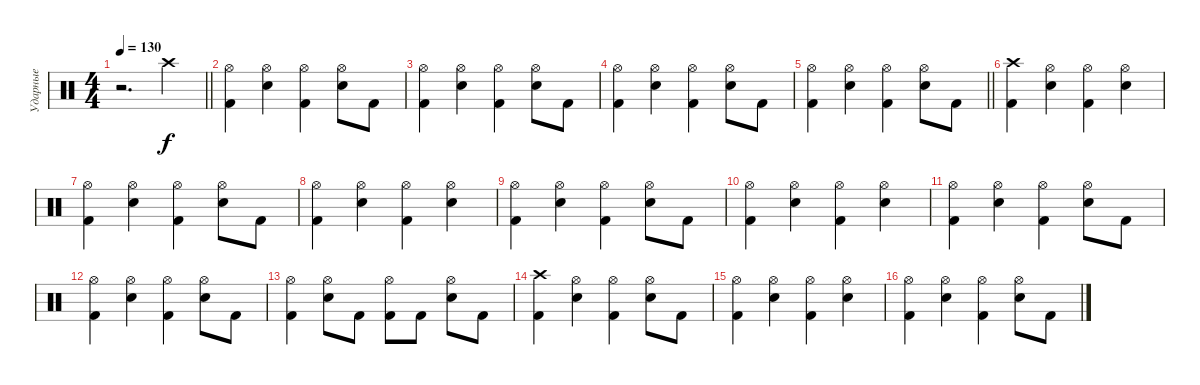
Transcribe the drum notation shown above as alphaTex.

\track ("Ударные" "Ударные") {instrument percussion}
\staff
\articulation defaults
\ts (4 4)
\tempo 130
\clef neutral
\barLineRight lightlight
\ks c
r.2{d dy f} "Crash high (hit)".4 |
("Kick (hit) 2" "Hi-Hat (open)").4 ("Snare (hit) 2" "Hi-Hat (open)").4 ("Kick (hit) 2" "Hi-Hat (open)").4 ("Snare (hit) 2" "Hi-Hat (open)").8 "Kick (hit) 2".8 |
("Kick (hit) 2" "Hi-Hat (open)").4 ("Snare (hit) 2" "Hi-Hat (open)").4 ("Kick (hit) 2" "Hi-Hat (open)").4 ("Snare (hit) 2" "Hi-Hat (open)").8 "Kick (hit) 2".8 |
("Kick (hit) 2" "Hi-Hat (open)").4 ("Snare (hit) 2" "Hi-Hat (open)").4 ("Kick (hit) 2" "Hi-Hat (open)").4 ("Snare (hit) 2" "Hi-Hat (open)").8 "Kick (hit) 2".8 |
\barLineRight lightlight
("Kick (hit) 2" "Hi-Hat (open)").4 ("Snare (hit) 2" "Hi-Hat (open)").4 ("Kick (hit) 2" "Hi-Hat (open)").4 ("Snare (hit) 2" "Hi-Hat (open)").8 "Kick (hit) 2".8 |
("Kick (hit) 2" "Crash high (hit)").4 ("Snare (hit) 2" "Hi-Hat (open)").4 ("Kick (hit) 2" "Hi-Hat (open)").4 ("Snare (hit) 2" "Hi-Hat (open)").4 |
("Kick (hit) 2" "Hi-Hat (open)").4 ("Snare (hit) 2" "Hi-Hat (open)").4 ("Kick (hit) 2" "Hi-Hat (open)").4 ("Snare (hit) 2" "Hi-Hat (open)").8 "Kick (hit) 2".8 |
("Kick (hit) 2" "Hi-Hat (open)").4 ("Snare (hit) 2" "Hi-Hat (open)").4 ("Kick (hit) 2" "Hi-Hat (open)").4 ("Snare (hit) 2" "Hi-Hat (open)").4 |
("Kick (hit) 2" "Hi-Hat (open)").4 ("Snare (hit) 2" "Hi-Hat (open)").4 ("Kick (hit) 2" "Hi-Hat (open)").4 ("Snare (hit) 2" "Hi-Hat (open)").8 "Kick (hit) 2".8 |
("Kick (hit) 2" "Hi-Hat (open)").4 ("Snare (hit) 2" "Hi-Hat (open)").4 ("Kick (hit) 2" "Hi-Hat (open)").4 ("Snare (hit) 2" "Hi-Hat (open)").4 |
("Kick (hit) 2" "Hi-Hat (open)").4 ("Snare (hit) 2" "Hi-Hat (open)").4 ("Kick (hit) 2" "Hi-Hat (open)").4 ("Snare (hit) 2" "Hi-Hat (open)").8 "Kick (hit) 2".8 |
("Kick (hit) 2" "Hi-Hat (open)").4 ("Snare (hit) 2" "Hi-Hat (open)").4 ("Kick (hit) 2" "Hi-Hat (open)").4 ("Snare (hit) 2" "Hi-Hat (open)").8 "Kick (hit) 2".8 |
("Kick (hit) 2" "Hi-Hat (open)").4 ("Snare (hit) 2" "Hi-Hat (open)").8 "Kick (hit) 2".8 ("Kick (hit) 2" "Hi-Hat (open)").8 "Kick (hit) 2".8 ("Snare (hit) 2" "Hi-Hat (open)").8 "Kick (hit) 2".8 |
("Kick (hit) 2" "Crash high (hit)").4 ("Snare (hit) 2" "Hi-Hat (open)").4 ("Kick (hit) 2" "Hi-Hat (open)").4 ("Snare (hit) 2" "Hi-Hat (open)").8 "Kick (hit) 2".8 |
("Kick (hit) 2" "Hi-Hat (open)").4 ("Snare (hit) 2" "Hi-Hat (open)").4 ("Kick (hit) 2" "Hi-Hat (open)").4 ("Snare (hit) 2" "Hi-Hat (open)").4 |
("Kick (hit) 2" "Hi-Hat (open)").4 ("Snare (hit) 2" "Hi-Hat (open)").4 ("Kick (hit) 2" "Hi-Hat (open)").4 ("Snare (hit) 2" "Hi-Hat (open)").8 "Kick (hit) 2".8
